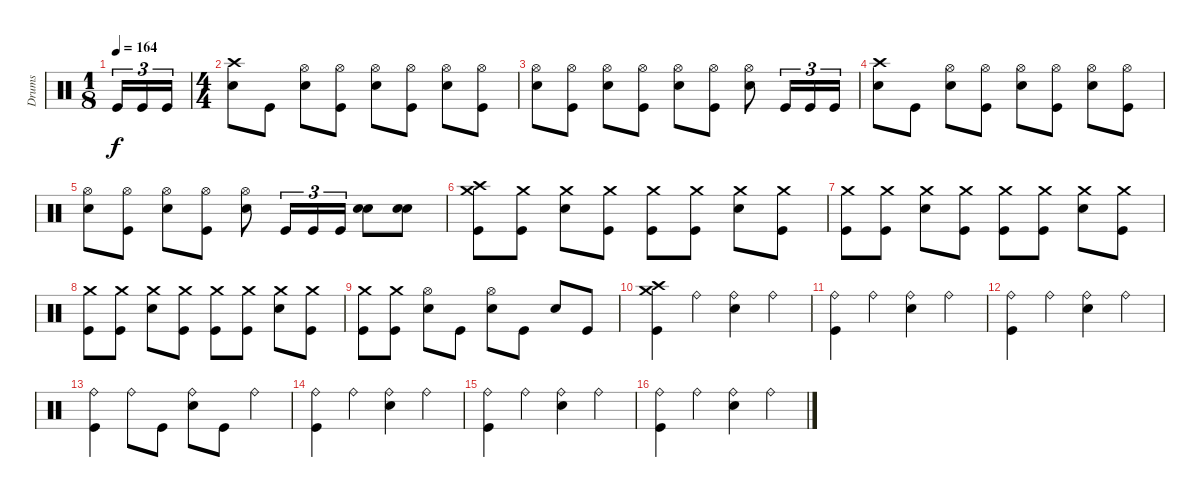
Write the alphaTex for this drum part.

\track ("Drums" "Drums") {instrument percussion}
\staff {score}
\articulation defaults
\ts (1 8)
\tempo 164
\clef neutral
\ks c "Kick (hit)".16{tu (3 2) dy f} "Kick (hit)".16{tu (3 2)} "Kick (hit)".16{tu (3 2)}
|
\ts (4 4)
("Snare (hit) 2" "Crash high (hit)").8 "Kick (hit)".8 ("Snare (hit) 2" "Hi-Hat (open)").8 ("Hi-Hat (open)" "Kick (hit)").8 ("Snare (hit) 2" "Hi-Hat (open)").8 ("Hi-Hat (open)" "Kick (hit)").8 ("Snare (hit) 2" "Hi-Hat (open)").8 ("Hi-Hat (open)" "Kick (hit)").8 |
("Snare (hit) 2" "Hi-Hat (open)").8 ("Hi-Hat (open)" "Kick (hit)").8 ("Snare (hit) 2" "Hi-Hat (open)").8 ("Hi-Hat (open)" "Kick (hit)").8 ("Snare (hit) 2" "Hi-Hat (open)").8 ("Hi-Hat (open)" "Kick (hit)").8 ("Snare (hit) 2" "Hi-Hat (open)").8 "Kick (hit)".16{tu (3 2)} "Kick (hit)".16{tu (3 2)} "Kick (hit)".16{tu (3 2)} |
("Snare (hit) 2" "Crash high (hit)").8 "Kick (hit)".8 ("Snare (hit) 2" "Hi-Hat (open)").8 ("Hi-Hat (open)" "Kick (hit)").8 ("Snare (hit) 2" "Hi-Hat (open)").8 ("Hi-Hat (open)" "Kick (hit)").8 ("Snare (hit) 2" "Hi-Hat (open)").8 ("Hi-Hat (open)" "Kick (hit)").8 |
("Snare (hit) 2" "Hi-Hat (open)").8 ("Hi-Hat (open)" "Kick (hit)").8 ("Snare (hit) 2" "Hi-Hat (open)").8 ("Hi-Hat (open)" "Kick (hit)").8 ("Snare (hit) 2" "Hi-Hat (open)").8 "Kick (hit)".16{tu (3 2)} "Kick (hit)".16{tu (3 2)} "Kick (hit)".16{tu (3 2)} ("Snare (hit) 2" "Snare (hit) 2").8 ("Snare (hit) 2" "Snare (hit) 2").8 |
("Crash high (hit)" "Kick (hit)" "Crash medium (hit)").8 ("Crash medium (hit)" "Kick (hit)").8 ("Snare (hit) 2" "Crash medium (hit)").8 ("Crash medium (hit)" "Kick (hit)").8 ("Crash medium (hit)" "Kick (hit)").8 ("Crash medium (hit)" "Kick (hit)").8 ("Snare (hit) 2" "Crash medium (hit)").8 ("Crash medium (hit)" "Kick (hit)").8 |
("Crash medium (hit)" "Kick (hit)").8 ("Crash medium (hit)" "Kick (hit)").8 ("Snare (hit) 2" "Crash medium (hit)").8 ("Crash medium (hit)" "Kick (hit)").8 ("Crash medium (hit)" "Kick (hit)").8 ("Crash medium (hit)" "Kick (hit)").8 ("Snare (hit) 2" "Crash medium (hit)").8 ("Crash medium (hit)" "Kick (hit)").8 |
("Crash medium (hit)" "Kick (hit)").8 ("Crash medium (hit)" "Kick (hit)").8 ("Snare (hit) 2" "Crash medium (hit)").8 ("Crash medium (hit)" "Kick (hit)").8 ("Crash medium (hit)" "Kick (hit)").8 ("Crash medium (hit)" "Kick (hit)").8 ("Snare (hit) 2" "Crash medium (hit)").8 ("Crash medium (hit)" "Kick (hit)").8 |
("Crash medium (hit)" "Kick (hit)").8 ("Crash medium (hit)" "Kick (hit)").8 ("Snare (hit) 2" "Hi-Hat (open)").8 "Kick (hit)".8 ("Snare (hit) 2" "Hi-Hat (open)").8 "Kick (hit)".8 "Snare (hit) 2".8 "Kick (hit)".8 |
("Crash high (hit)" "Kick (hit)" "Crash medium (hit)").4 "Ride (bell)".4 ("Snare (hit) 2" "Ride (bell)").4 "Ride (bell)".4 |
("Ride (bell)" "Kick (hit)").4 "Ride (bell)".4 ("Snare (hit) 2" "Ride (bell)").4 "Ride (bell)".4 |
("Ride (bell)" "Kick (hit)").4 "Ride (bell)".4 ("Snare (hit) 2" "Ride (bell)").4 "Ride (bell)".4 |
("Ride (bell)" "Kick (hit)").4 "Ride (bell)".8 "Kick (hit)".8 ("Snare (hit) 2" "Ride (bell)").8 "Kick (hit)".8 "Ride (bell)".4 |
("Ride (bell)" "Kick (hit)").4 "Ride (bell)".4 ("Snare (hit) 2" "Ride (bell)").4 "Ride (bell)".4 |
("Ride (bell)" "Kick (hit)").4 "Ride (bell)".4 ("Snare (hit) 2" "Ride (bell)").4 "Ride (bell)".4 |
("Ride (bell)" "Kick (hit)").4 "Ride (bell)".4 ("Snare (hit) 2" "Ride (bell)").4 "Ride (bell)".4
